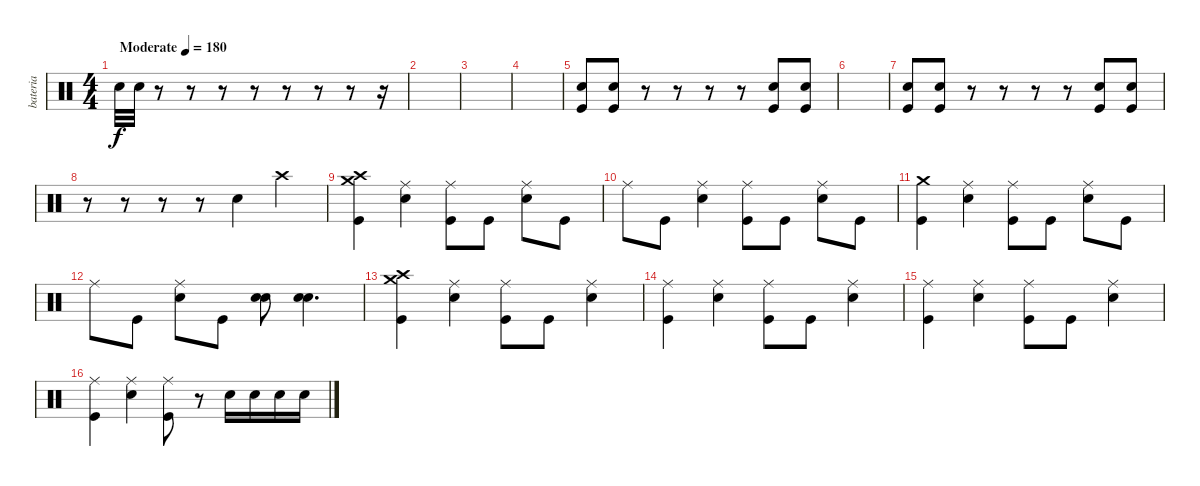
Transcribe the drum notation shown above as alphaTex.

\track ("bateria" "bateria") {instrument percussion}
\staff {score}
\articulation defaults
\ts (4 4)
\tempo (180 "Moderate")
\clef neutral
\ks c "Electric Snare (hit)".32{dy f} "Electric Snare (hit)".32
r.8 r.8 r.8 r.8 r.8 r.8 r.8 r.16 |
|
|
|
("Electric Snare (hit)" "Kick (hit)").8 ("Electric Snare (hit)" "Kick (hit)").8 r.8 r.8 r.8 r.8 ("Electric Snare (hit)" "Kick (hit)").8 ("Electric Snare (hit)" "Kick (hit)").8 |
|
("Electric Snare (hit)" "Kick (hit)").8 ("Electric Snare (hit)" "Kick (hit)").8 r.8 r.8 r.8 r.8 ("Electric Snare (hit)" "Kick (hit)").8 ("Electric Snare (hit)" "Kick (hit)").8 |
r.8 r.8 r.8 r.8 "Electric Snare (hit)".4 "Crash high (hit)".4 |
("Crash medium (hit)" "Crash high (hit)" "Kick (hit)").4 ("Ride (middle)" "Electric Snare (hit)").4 ("Ride (middle)" "Kick (hit)").8 "Kick (hit)".8 ("Ride (middle)" "Electric Snare (hit)").8 "Kick (hit)".8 |
"Ride (middle)".8 "Kick (hit)".8 ("Ride (middle)" "Electric Snare (hit)").4 ("Ride (middle)" "Kick (hit)").8 "Kick (hit)".8 ("Ride (middle)" "Electric Snare (hit)").8 "Kick (hit)".8 |
("Crash medium (hit)" "Kick (hit)").4 ("Ride (middle)" "Electric Snare (hit)").4 ("Ride (middle)" "Kick (hit)").8 "Kick (hit)".8 ("Ride (middle)" "Electric Snare (hit)").8 "Kick (hit)".8 |
"Ride (middle)".8 "Kick (hit)".8 ("Ride (middle)" "Electric Snare (hit)").8 "Kick (hit)".8 ("Electric Snare (hit)" "Electric Snare (hit)").8 ("Electric Snare (hit)" "Electric Snare (hit)").4{d} |
("Crash high (hit)" "Crash medium (hit)" "Kick (hit)").4 ("Ride (middle)" "Electric Snare (hit)").4 ("Ride (middle)" "Kick (hit)").8 "Kick (hit)".8 ("Ride (middle)" "Electric Snare (hit)").4 |
("Ride (middle)" "Kick (hit)").4 ("Ride (middle)" "Electric Snare (hit)").4 ("Ride (middle)" "Kick (hit)").8 "Kick (hit)".8 ("Ride (middle)" "Electric Snare (hit)").4 |
("Ride (middle)" "Kick (hit)").4 ("Ride (middle)" "Electric Snare (hit)").4 ("Ride (middle)" "Kick (hit)").8 "Kick (hit)".8 ("Ride (middle)" "Electric Snare (hit)").4 |
("Ride (middle)" "Kick (hit)").4 ("Ride (middle)" "Electric Snare (hit)").4 ("Ride (middle)" "Kick (hit)").8 r.8 "Electric Snare (hit)".16 "Electric Snare (hit)".16 "Electric Snare (hit)".16 "Electric Snare (hit)".16
